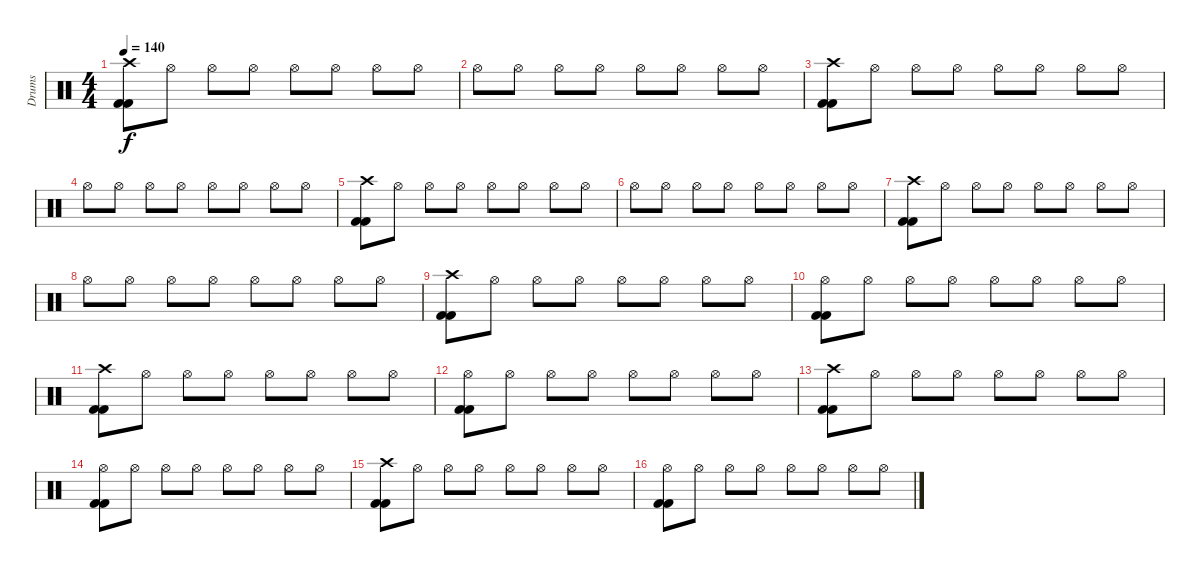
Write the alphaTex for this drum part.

\track ("Drums" "Drums") {instrument percussion}
\staff {score}
\articulation defaults
\ts (4 4)
\tempo 140
\clef neutral
\ks c
("Crash high (hit)" "Kick (hit) 2" "Kick (hit) 2").8{dy f} "Hi-Hat (open)".8 "Hi-Hat (open)".8 "Hi-Hat (open)".8 "Hi-Hat (open)".8 "Hi-Hat (open)".8 "Hi-Hat (open)".8 "Hi-Hat (open)".8 |
"Hi-Hat (open)".8 "Hi-Hat (open)".8 "Hi-Hat (open)".8 "Hi-Hat (open)".8 "Hi-Hat (open)".8 "Hi-Hat (open)".8 "Hi-Hat (open)".8 "Hi-Hat (open)".8 |
("Crash high (hit)" "Kick (hit) 2" "Kick (hit) 2").8 "Hi-Hat (open)".8 "Hi-Hat (open)".8 "Hi-Hat (open)".8 "Hi-Hat (open)".8 "Hi-Hat (open)".8 "Hi-Hat (open)".8 "Hi-Hat (open)".8 |
"Hi-Hat (open)".8 "Hi-Hat (open)".8 "Hi-Hat (open)".8 "Hi-Hat (open)".8 "Hi-Hat (open)".8 "Hi-Hat (open)".8 "Hi-Hat (open)".8 "Hi-Hat (open)".8 |
("Crash high (hit)" "Kick (hit) 2" "Kick (hit) 2").8 "Hi-Hat (open)".8 "Hi-Hat (open)".8 "Hi-Hat (open)".8 "Hi-Hat (open)".8 "Hi-Hat (open)".8 "Hi-Hat (open)".8 "Hi-Hat (open)".8 |
"Hi-Hat (open)".8 "Hi-Hat (open)".8 "Hi-Hat (open)".8 "Hi-Hat (open)".8 "Hi-Hat (open)".8 "Hi-Hat (open)".8 "Hi-Hat (open)".8 "Hi-Hat (open)".8 |
("Crash high (hit)" "Kick (hit) 2" "Kick (hit) 2").8 "Hi-Hat (open)".8 "Hi-Hat (open)".8 "Hi-Hat (open)".8 "Hi-Hat (open)".8 "Hi-Hat (open)".8 "Hi-Hat (open)".8 "Hi-Hat (open)".8 |
"Hi-Hat (open)".8 "Hi-Hat (open)".8 "Hi-Hat (open)".8 "Hi-Hat (open)".8 "Hi-Hat (open)".8 "Hi-Hat (open)".8 "Hi-Hat (open)".8 "Hi-Hat (open)".8 |
("Crash high (hit)" "Kick (hit) 2" "Kick (hit) 2").8 "Hi-Hat (open)".8 "Hi-Hat (open)".8 "Hi-Hat (open)".8 "Hi-Hat (open)".8 "Hi-Hat (open)".8 "Hi-Hat (open)".8 "Hi-Hat (open)".8 |
("Hi-Hat (open)" "Kick (hit) 2" "Kick (hit) 2").8 "Hi-Hat (open)".8 "Hi-Hat (open)".8 "Hi-Hat (open)".8 "Hi-Hat (open)".8 "Hi-Hat (open)".8 "Hi-Hat (open)".8 "Hi-Hat (open)".8 |
("Crash high (hit)" "Kick (hit) 2" "Kick (hit) 2").8 "Hi-Hat (open)".8 "Hi-Hat (open)".8 "Hi-Hat (open)".8 "Hi-Hat (open)".8 "Hi-Hat (open)".8 "Hi-Hat (open)".8 "Hi-Hat (open)".8 |
("Hi-Hat (open)" "Kick (hit) 2" "Kick (hit) 2").8 "Hi-Hat (open)".8 "Hi-Hat (open)".8 "Hi-Hat (open)".8 "Hi-Hat (open)".8 "Hi-Hat (open)".8 "Hi-Hat (open)".8 "Hi-Hat (open)".8 |
("Crash high (hit)" "Kick (hit) 2" "Kick (hit) 2").8 "Hi-Hat (open)".8 "Hi-Hat (open)".8 "Hi-Hat (open)".8 "Hi-Hat (open)".8 "Hi-Hat (open)".8 "Hi-Hat (open)".8 "Hi-Hat (open)".8 |
("Hi-Hat (open)" "Kick (hit) 2" "Kick (hit) 2").8 "Hi-Hat (open)".8 "Hi-Hat (open)".8 "Hi-Hat (open)".8 "Hi-Hat (open)".8 "Hi-Hat (open)".8 "Hi-Hat (open)".8 "Hi-Hat (open)".8 |
("Crash high (hit)" "Kick (hit) 2" "Kick (hit) 2").8 "Hi-Hat (open)".8 "Hi-Hat (open)".8 "Hi-Hat (open)".8 "Hi-Hat (open)".8 "Hi-Hat (open)".8 "Hi-Hat (open)".8 "Hi-Hat (open)".8 |
("Hi-Hat (open)" "Kick (hit) 2" "Kick (hit) 2").8 "Hi-Hat (open)".8 "Hi-Hat (open)".8 "Hi-Hat (open)".8 "Hi-Hat (open)".8 "Hi-Hat (open)".8 "Hi-Hat (open)".8 "Hi-Hat (open)".8
